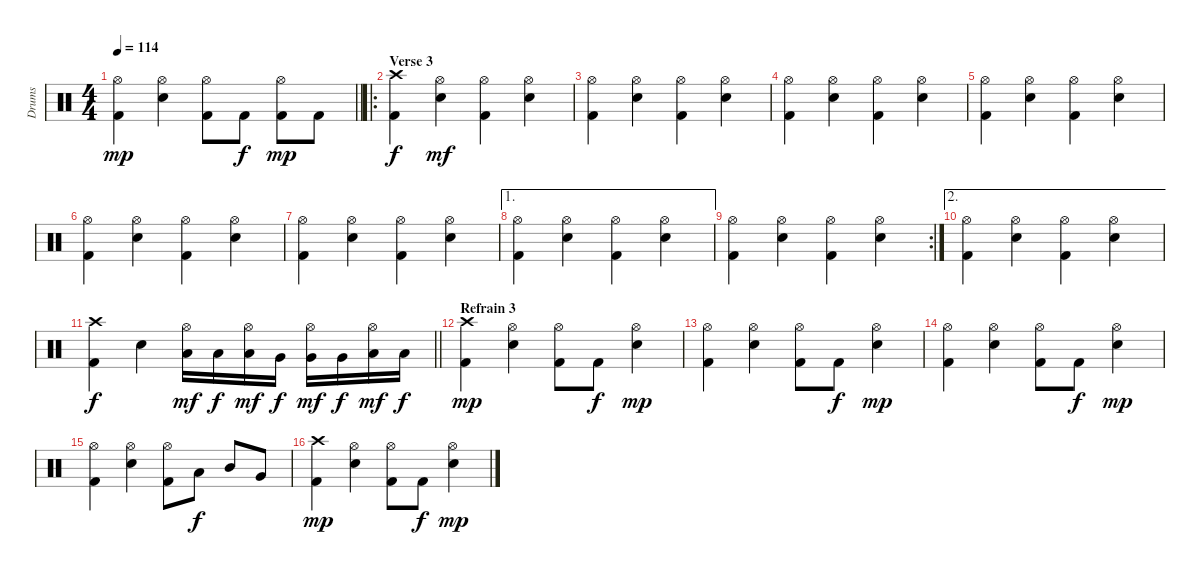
\track ("Drums" "Drums") {instrument percussion}
\staff {score}
\articulation defaults
\ts (4 4)
\tempo 114
\clef neutral
\barLineRight lightlight
\ks c
("Hi-Hat (open)" "Kick (hit) 2").4{dy mp} ("Hi-Hat (open)" "Snare (hit) 2").4 ("Hi-Hat (open)" "Kick (hit) 2").8 "Kick (hit) 2".8{dy f} ("Hi-Hat (open)" "Kick (hit) 2").8{dy mp} "Kick (hit) 2".8 |
\ro
\section ("" "Verse 3")
("Crash high (hit)" "Kick (hit) 2").4{dy f} ("Hi-Hat (open)" "Snare (hit) 2").4{dy mf} ("Hi-Hat (open)" "Kick (hit) 2").4 ("Hi-Hat (open)" "Snare (hit) 2").4 |
("Hi-Hat (open)" "Kick (hit) 2").4 ("Hi-Hat (open)" "Snare (hit) 2").4 ("Hi-Hat (open)" "Kick (hit) 2").4 ("Hi-Hat (open)" "Snare (hit) 2").4 |
("Hi-Hat (open)" "Kick (hit) 2").4 ("Hi-Hat (open)" "Snare (hit) 2").4 ("Hi-Hat (open)" "Kick (hit) 2").4 ("Hi-Hat (open)" "Snare (hit) 2").4 |
("Hi-Hat (open)" "Kick (hit) 2").4 ("Hi-Hat (open)" "Snare (hit) 2").4 ("Hi-Hat (open)" "Kick (hit) 2").4 ("Hi-Hat (open)" "Snare (hit) 2").4 |
("Hi-Hat (open)" "Kick (hit) 2").4 ("Hi-Hat (open)" "Snare (hit) 2").4 ("Hi-Hat (open)" "Kick (hit) 2").4 ("Hi-Hat (open)" "Snare (hit) 2").4 |
("Hi-Hat (open)" "Kick (hit) 2").4 ("Hi-Hat (open)" "Snare (hit) 2").4 ("Hi-Hat (open)" "Kick (hit) 2").4 ("Hi-Hat (open)" "Snare (hit) 2").4 |
\ae 1
("Hi-Hat (open)" "Kick (hit) 2").4 ("Hi-Hat (open)" "Snare (hit) 2").4 ("Hi-Hat (open)" "Kick (hit) 2").4 ("Hi-Hat (open)" "Snare (hit) 2").4 |
\rc 2
("Hi-Hat (open)" "Kick (hit) 2").4 ("Hi-Hat (open)" "Snare (hit) 2").4 ("Hi-Hat (open)" "Kick (hit) 2").4 ("Hi-Hat (open)" "Snare (hit) 2").4 |
\ae 2
("Hi-Hat (open)" "Kick (hit) 2").4 ("Hi-Hat (open)" "Snare (hit) 2").4 ("Hi-Hat (open)" "Kick (hit) 2").4 ("Hi-Hat (open)" "Snare (hit) 2").4 |
\barLineRight lightlight
("Crash high (hit)" "Kick (hit) 2").4{dy f} "Snare (hit) 2".4 ("Hi-Hat (open)" "Low Tom (hit)").16{dy mf} "Low Tom (hit)".16{dy f} ("Hi-Hat (open)" "Low Tom (hit)").16{dy mf} "Very Low Tom (hit)".16{dy f} ("Hi-Hat (open)" "Very Low Tom (hit)").16{dy mf} "Very Low Tom (hit)".16{dy f} ("Hi-Hat (open)" "Low Floor Tom (hit)").16{dy mf} "Low Floor Tom (hit)".16{dy f} |
\section ("" "Refrain 3")
("Crash high (hit)" "Kick (hit) 2").4{dy mp} ("Hi-Hat (open)" "Snare (hit) 2").4 ("Hi-Hat (open)" "Kick (hit) 2").8 "Kick (hit) 2".8{dy f} ("Hi-Hat (open)" "Snare (hit) 2").4{dy mp} |
("Hi-Hat (open)" "Kick (hit) 2").4 ("Hi-Hat (open)" "Snare (hit) 2").4 ("Hi-Hat (open)" "Kick (hit) 2").8 "Kick (hit) 2".8{dy f} ("Hi-Hat (open)" "Snare (hit) 2").4{dy mp} |
("Hi-Hat (open)" "Kick (hit) 2").4 ("Hi-Hat (open)" "Snare (hit) 2").4 ("Hi-Hat (open)" "Kick (hit) 2").8 "Kick (hit) 2".8{dy f} ("Hi-Hat (open)" "Snare (hit) 2").4{dy mp} |
("Hi-Hat (open)" "Kick (hit) 2").4 ("Hi-Hat (open)" "Snare (hit) 2").4 ("Hi-Hat (open)" "Kick (hit) 2").8 "Low Floor Tom (hit)".8{dy f} "Mid Tom (hit)".8 "Very Low Tom (hit)".8 |
("Crash high (hit)" "Kick (hit) 2").4{dy mp} ("Hi-Hat (open)" "Snare (hit) 2").4 ("Hi-Hat (open)" "Kick (hit) 2").8 "Kick (hit) 2".8{dy f} ("Hi-Hat (open)" "Snare (hit) 2").4{dy mp}
